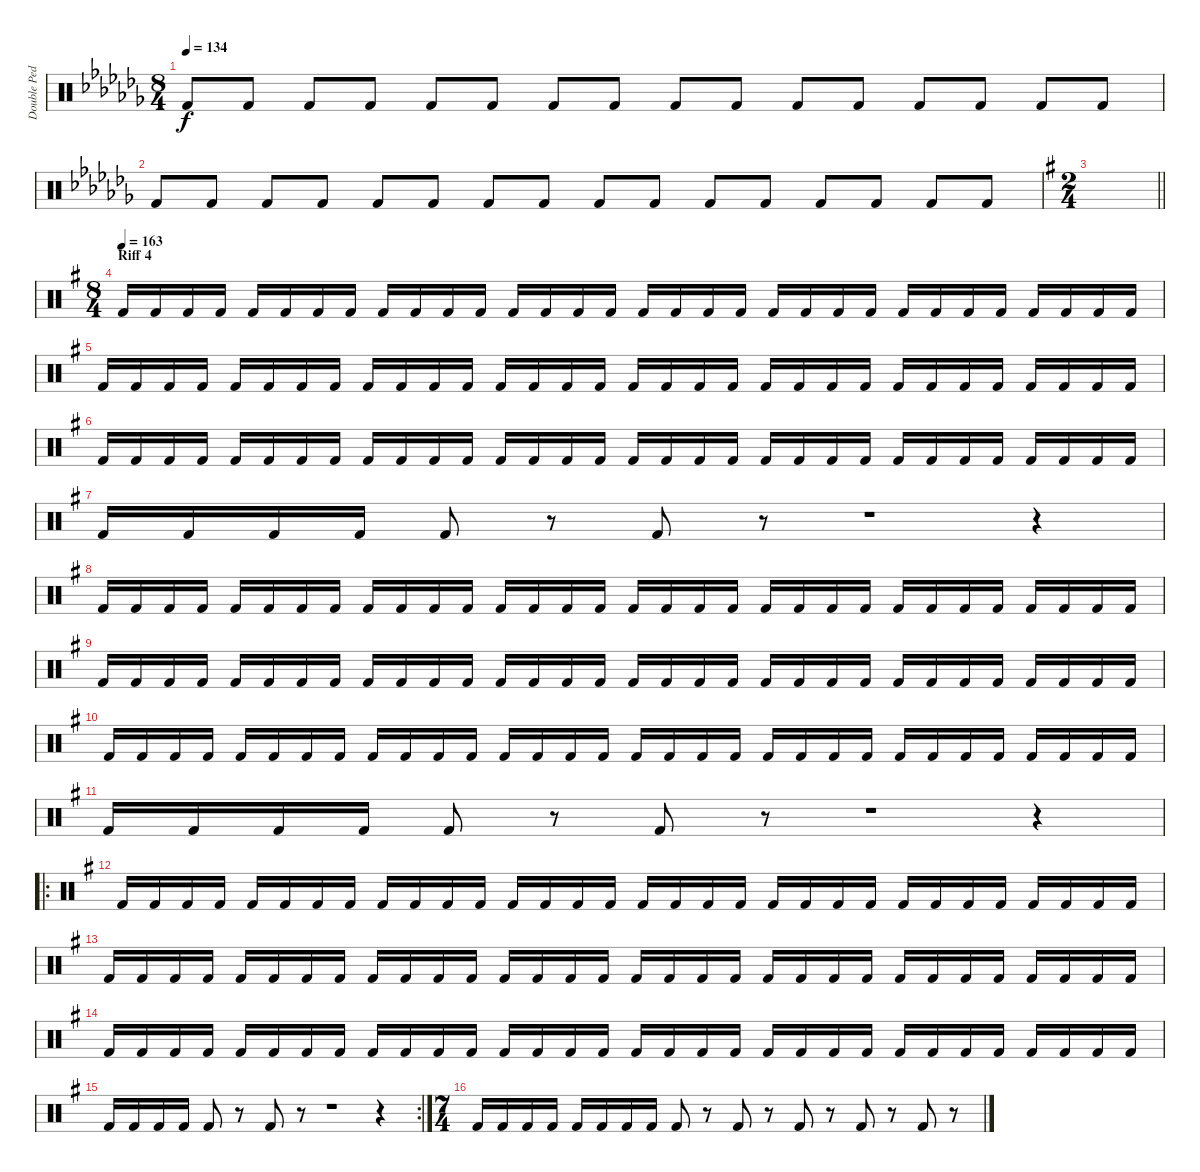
\track ("Double Pedal" "Double Ped") {instrument percussion}
\staff
\articulation defaults
\ts (8 4)
\tempo 134
\clef neutral
\ks cb "Kick (hit) 2".8{dy f} "Kick (hit) 2".8 "Kick (hit) 2".8 "Kick (hit) 2".8 "Kick (hit) 2".8 "Kick (hit) 2".8 "Kick (hit) 2".8 "Kick (hit) 2".8 "Kick (hit) 2".8 "Kick (hit) 2".8 "Kick (hit) 2".8 "Kick (hit) 2".8 "Kick (hit) 2".8 "Kick (hit) 2".8 "Kick (hit) 2".8 "Kick (hit) 2".8
|
"Kick (hit) 2".8 "Kick (hit) 2".8 "Kick (hit) 2".8 "Kick (hit) 2".8 "Kick (hit) 2".8 "Kick (hit) 2".8 "Kick (hit) 2".8 "Kick (hit) 2".8 "Kick (hit) 2".8 "Kick (hit) 2".8 "Kick (hit) 2".8 "Kick (hit) 2".8 "Kick (hit) 2".8 "Kick (hit) 2".8 "Kick (hit) 2".8 "Kick (hit) 2".8 |
\ts (2 4)
\barLineRight lightlight
\ks g
|
\ts (8 4)
\section ("" "Riff 4")
\tempo (163)
"Kick (hit) 2".16 "Kick (hit) 2".16 "Kick (hit) 2".16 "Kick (hit) 2".16 "Kick (hit) 2".16 "Kick (hit) 2".16 "Kick (hit) 2".16 "Kick (hit) 2".16 "Kick (hit) 2".16 "Kick (hit) 2".16 "Kick (hit) 2".16 "Kick (hit) 2".16 "Kick (hit) 2".16 "Kick (hit) 2".16 "Kick (hit) 2".16 "Kick (hit) 2".16 "Kick (hit) 2".16 "Kick (hit) 2".16 "Kick (hit) 2".16 "Kick (hit) 2".16 "Kick (hit) 2".16 "Kick (hit) 2".16 "Kick (hit) 2".16 "Kick (hit) 2".16 "Kick (hit) 2".16 "Kick (hit) 2".16 "Kick (hit) 2".16 "Kick (hit) 2".16 "Kick (hit) 2".16 "Kick (hit) 2".16 "Kick (hit) 2".16 "Kick (hit) 2".16 |
"Kick (hit) 2".16 "Kick (hit) 2".16 "Kick (hit) 2".16 "Kick (hit) 2".16 "Kick (hit) 2".16 "Kick (hit) 2".16 "Kick (hit) 2".16 "Kick (hit) 2".16 "Kick (hit) 2".16 "Kick (hit) 2".16 "Kick (hit) 2".16 "Kick (hit) 2".16 "Kick (hit) 2".16 "Kick (hit) 2".16 "Kick (hit) 2".16 "Kick (hit) 2".16 "Kick (hit) 2".16 "Kick (hit) 2".16 "Kick (hit) 2".16 "Kick (hit) 2".16 "Kick (hit) 2".16 "Kick (hit) 2".16 "Kick (hit) 2".16 "Kick (hit) 2".16 "Kick (hit) 2".16 "Kick (hit) 2".16 "Kick (hit) 2".16 "Kick (hit) 2".16 "Kick (hit) 2".16 "Kick (hit) 2".16 "Kick (hit) 2".16 "Kick (hit) 2".16 |
"Kick (hit) 2".16 "Kick (hit) 2".16 "Kick (hit) 2".16 "Kick (hit) 2".16 "Kick (hit) 2".16 "Kick (hit) 2".16 "Kick (hit) 2".16 "Kick (hit) 2".16 "Kick (hit) 2".16 "Kick (hit) 2".16 "Kick (hit) 2".16 "Kick (hit) 2".16 "Kick (hit) 2".16 "Kick (hit) 2".16 "Kick (hit) 2".16 "Kick (hit) 2".16 "Kick (hit) 2".16 "Kick (hit) 2".16 "Kick (hit) 2".16 "Kick (hit) 2".16 "Kick (hit) 2".16 "Kick (hit) 2".16 "Kick (hit) 2".16 "Kick (hit) 2".16 "Kick (hit) 2".16 "Kick (hit) 2".16 "Kick (hit) 2".16 "Kick (hit) 2".16 "Kick (hit) 2".16 "Kick (hit) 2".16 "Kick (hit) 2".16 "Kick (hit) 2".16 |
"Kick (hit) 2".16 "Kick (hit) 2".16 "Kick (hit) 2".16 "Kick (hit) 2".16 "Kick (hit) 2".8 r.8 "Kick (hit) 2".8 r.8 r.1 r.4 |
"Kick (hit) 2".16 "Kick (hit) 2".16 "Kick (hit) 2".16 "Kick (hit) 2".16 "Kick (hit) 2".16 "Kick (hit) 2".16 "Kick (hit) 2".16 "Kick (hit) 2".16 "Kick (hit) 2".16 "Kick (hit) 2".16 "Kick (hit) 2".16 "Kick (hit) 2".16 "Kick (hit) 2".16 "Kick (hit) 2".16 "Kick (hit) 2".16 "Kick (hit) 2".16 "Kick (hit) 2".16 "Kick (hit) 2".16 "Kick (hit) 2".16 "Kick (hit) 2".16 "Kick (hit) 2".16 "Kick (hit) 2".16 "Kick (hit) 2".16 "Kick (hit) 2".16 "Kick (hit) 2".16 "Kick (hit) 2".16 "Kick (hit) 2".16 "Kick (hit) 2".16 "Kick (hit) 2".16 "Kick (hit) 2".16 "Kick (hit) 2".16 "Kick (hit) 2".16 |
"Kick (hit) 2".16 "Kick (hit) 2".16 "Kick (hit) 2".16 "Kick (hit) 2".16 "Kick (hit) 2".16 "Kick (hit) 2".16 "Kick (hit) 2".16 "Kick (hit) 2".16 "Kick (hit) 2".16 "Kick (hit) 2".16 "Kick (hit) 2".16 "Kick (hit) 2".16 "Kick (hit) 2".16 "Kick (hit) 2".16 "Kick (hit) 2".16 "Kick (hit) 2".16 "Kick (hit) 2".16 "Kick (hit) 2".16 "Kick (hit) 2".16 "Kick (hit) 2".16 "Kick (hit) 2".16 "Kick (hit) 2".16 "Kick (hit) 2".16 "Kick (hit) 2".16 "Kick (hit) 2".16 "Kick (hit) 2".16 "Kick (hit) 2".16 "Kick (hit) 2".16 "Kick (hit) 2".16 "Kick (hit) 2".16 "Kick (hit) 2".16 "Kick (hit) 2".16 |
"Kick (hit) 2".16 "Kick (hit) 2".16 "Kick (hit) 2".16 "Kick (hit) 2".16 "Kick (hit) 2".16 "Kick (hit) 2".16 "Kick (hit) 2".16 "Kick (hit) 2".16 "Kick (hit) 2".16 "Kick (hit) 2".16 "Kick (hit) 2".16 "Kick (hit) 2".16 "Kick (hit) 2".16 "Kick (hit) 2".16 "Kick (hit) 2".16 "Kick (hit) 2".16 "Kick (hit) 2".16 "Kick (hit) 2".16 "Kick (hit) 2".16 "Kick (hit) 2".16 "Kick (hit) 2".16 "Kick (hit) 2".16 "Kick (hit) 2".16 "Kick (hit) 2".16 "Kick (hit) 2".16 "Kick (hit) 2".16 "Kick (hit) 2".16 "Kick (hit) 2".16 "Kick (hit) 2".16 "Kick (hit) 2".16 "Kick (hit) 2".16 "Kick (hit) 2".16 |
"Kick (hit) 2".16 "Kick (hit) 2".16 "Kick (hit) 2".16 "Kick (hit) 2".16 "Kick (hit) 2".8 r.8 "Kick (hit) 2".8 r.8 r.1 r.4 |
\ro "Kick (hit) 2".16 "Kick (hit) 2".16 "Kick (hit) 2".16 "Kick (hit) 2".16 "Kick (hit) 2".16 "Kick (hit) 2".16 "Kick (hit) 2".16 "Kick (hit) 2".16 "Kick (hit) 2".16 "Kick (hit) 2".16 "Kick (hit) 2".16 "Kick (hit) 2".16 "Kick (hit) 2".16 "Kick (hit) 2".16 "Kick (hit) 2".16 "Kick (hit) 2".16 "Kick (hit) 2".16 "Kick (hit) 2".16 "Kick (hit) 2".16 "Kick (hit) 2".16 "Kick (hit) 2".16 "Kick (hit) 2".16 "Kick (hit) 2".16 "Kick (hit) 2".16 "Kick (hit) 2".16 "Kick (hit) 2".16 "Kick (hit) 2".16 "Kick (hit) 2".16 "Kick (hit) 2".16 "Kick (hit) 2".16 "Kick (hit) 2".16 "Kick (hit) 2".16
|
"Kick (hit) 2".16 "Kick (hit) 2".16 "Kick (hit) 2".16 "Kick (hit) 2".16 "Kick (hit) 2".16 "Kick (hit) 2".16 "Kick (hit) 2".16 "Kick (hit) 2".16 "Kick (hit) 2".16 "Kick (hit) 2".16 "Kick (hit) 2".16 "Kick (hit) 2".16 "Kick (hit) 2".16 "Kick (hit) 2".16 "Kick (hit) 2".16 "Kick (hit) 2".16 "Kick (hit) 2".16 "Kick (hit) 2".16 "Kick (hit) 2".16 "Kick (hit) 2".16 "Kick (hit) 2".16 "Kick (hit) 2".16 "Kick (hit) 2".16 "Kick (hit) 2".16 "Kick (hit) 2".16 "Kick (hit) 2".16 "Kick (hit) 2".16 "Kick (hit) 2".16 "Kick (hit) 2".16 "Kick (hit) 2".16 "Kick (hit) 2".16 "Kick (hit) 2".16 |
"Kick (hit) 2".16 "Kick (hit) 2".16 "Kick (hit) 2".16 "Kick (hit) 2".16 "Kick (hit) 2".16 "Kick (hit) 2".16 "Kick (hit) 2".16 "Kick (hit) 2".16 "Kick (hit) 2".16 "Kick (hit) 2".16 "Kick (hit) 2".16 "Kick (hit) 2".16 "Kick (hit) 2".16 "Kick (hit) 2".16 "Kick (hit) 2".16 "Kick (hit) 2".16 "Kick (hit) 2".16 "Kick (hit) 2".16 "Kick (hit) 2".16 "Kick (hit) 2".16 "Kick (hit) 2".16 "Kick (hit) 2".16 "Kick (hit) 2".16 "Kick (hit) 2".16 "Kick (hit) 2".16 "Kick (hit) 2".16 "Kick (hit) 2".16 "Kick (hit) 2".16 "Kick (hit) 2".16 "Kick (hit) 2".16 "Kick (hit) 2".16 "Kick (hit) 2".16 |
\rc 2 "Kick (hit) 2".16 "Kick (hit) 2".16 "Kick (hit) 2".16 "Kick (hit) 2".16 "Kick (hit) 2".8
r.8 "Kick (hit) 2".8 r.8 r.1 r.4 |
\ts (7 4)
"Kick (hit) 2".16 "Kick (hit) 2".16 "Kick (hit) 2".16 "Kick (hit) 2".16 "Kick (hit) 2".16 "Kick (hit) 2".16 "Kick (hit) 2".16 "Kick (hit) 2".16 "Kick (hit) 2".8 r.8 "Kick (hit) 2".8 r.8 "Kick (hit) 2".8 r.8 "Kick (hit) 2".8 r.8 "Kick (hit) 2".8 r.8
